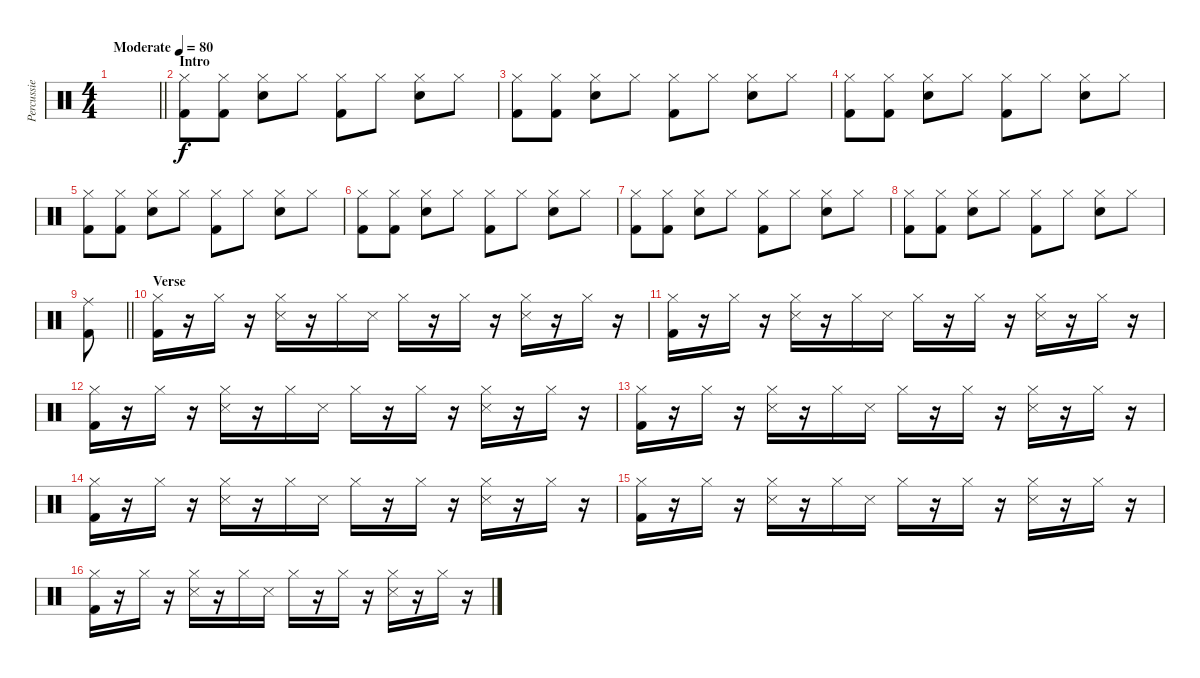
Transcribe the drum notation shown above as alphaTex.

\track ("Percussie" "Percussie") {instrument percussion}
\staff {score}
\articulation defaults
\ts (4 4)
\tempo (80 "Moderate")
\clef neutral
\barLineRight lightlight
\ks c
|
\section ("" "Intro")
("Kick (hit) 2" "Hi-Hat (closed)").8 ("Kick (hit) 2" "Hi-Hat (closed)").8 ("Hi-Hat (closed)" "Electric Snare (hit)").8 "Hi-Hat (closed)".8 ("Kick (hit) 2" "Hi-Hat (closed)").8 "Hi-Hat (closed)".8 ("Hi-Hat (closed)" "Electric Snare (hit)").8 "Hi-Hat (closed)".8 |
("Kick (hit) 2" "Hi-Hat (closed)").8 ("Kick (hit) 2" "Hi-Hat (closed)").8 ("Hi-Hat (closed)" "Electric Snare (hit)").8 "Hi-Hat (closed)".8 ("Kick (hit) 2" "Hi-Hat (closed)").8 "Hi-Hat (closed)".8 ("Hi-Hat (closed)" "Electric Snare (hit)").8 "Hi-Hat (closed)".8 |
("Kick (hit) 2" "Hi-Hat (closed)").8 ("Kick (hit) 2" "Hi-Hat (closed)").8 ("Hi-Hat (closed)" "Electric Snare (hit)").8 "Hi-Hat (closed)".8 ("Kick (hit) 2" "Hi-Hat (closed)").8 "Hi-Hat (closed)".8 ("Hi-Hat (closed)" "Electric Snare (hit)").8 "Hi-Hat (closed)".8 |
("Kick (hit) 2" "Hi-Hat (closed)").8 ("Kick (hit) 2" "Hi-Hat (closed)").8 ("Hi-Hat (closed)" "Electric Snare (hit)").8 "Hi-Hat (closed)".8 ("Kick (hit) 2" "Hi-Hat (closed)").8 "Hi-Hat (closed)".8 ("Hi-Hat (closed)" "Electric Snare (hit)").8 "Hi-Hat (closed)".8 |
("Kick (hit) 2" "Hi-Hat (closed)").8 ("Kick (hit) 2" "Hi-Hat (closed)").8 ("Hi-Hat (closed)" "Electric Snare (hit)").8 "Hi-Hat (closed)".8 ("Kick (hit) 2" "Hi-Hat (closed)").8 "Hi-Hat (closed)".8 ("Hi-Hat (closed)" "Electric Snare (hit)").8 "Hi-Hat (closed)".8 |
("Kick (hit) 2" "Hi-Hat (closed)").8 ("Kick (hit) 2" "Hi-Hat (closed)").8 ("Hi-Hat (closed)" "Electric Snare (hit)").8 "Hi-Hat (closed)".8 ("Kick (hit) 2" "Hi-Hat (closed)").8 "Hi-Hat (closed)".8 ("Hi-Hat (closed)" "Electric Snare (hit)").8 "Hi-Hat (closed)".8 |
("Kick (hit) 2" "Hi-Hat (closed)").8 ("Kick (hit) 2" "Hi-Hat (closed)").8 ("Hi-Hat (closed)" "Electric Snare (hit)").8 "Hi-Hat (closed)".8 ("Kick (hit) 2" "Hi-Hat (closed)").8 "Hi-Hat (closed)".8 ("Hi-Hat (closed)" "Electric Snare (hit)").8 "Hi-Hat (closed)".8 |
\barLineRight lightlight
("Ride (middle)" "Kick (hit) 2").8 |
\section ("" "Verse")
("Kick (hit) 2" "Hi-Hat (closed)").16 r.16 "Hi-Hat (closed)".16 r.16 ("Snare (side stick) 3" "Hi-Hat (closed)").16 r.16 "Hi-Hat (closed)".16 "Snare (side stick) 3".16 "Hi-Hat (closed)".16 r.16 "Hi-Hat (closed)".16 r.16 ("Snare (side stick) 3" "Hi-Hat (closed)").16 r.16 "Hi-Hat (closed)".16 r.16 |
("Kick (hit) 2" "Hi-Hat (closed)").16 r.16 "Hi-Hat (closed)".16 r.16 ("Snare (side stick) 3" "Hi-Hat (closed)").16 r.16 "Hi-Hat (closed)".16 "Snare (side stick) 3".16 "Hi-Hat (closed)".16 r.16 "Hi-Hat (closed)".16 r.16 ("Snare (side stick) 3" "Hi-Hat (closed)").16 r.16 "Hi-Hat (closed)".16 r.16 |
("Kick (hit) 2" "Hi-Hat (closed)").16 r.16 "Hi-Hat (closed)".16 r.16 ("Snare (side stick) 3" "Hi-Hat (closed)").16 r.16 "Hi-Hat (closed)".16 "Snare (side stick) 3".16 "Hi-Hat (closed)".16 r.16 "Hi-Hat (closed)".16 r.16 ("Snare (side stick) 3" "Hi-Hat (closed)").16 r.16 "Hi-Hat (closed)".16 r.16 |
("Kick (hit) 2" "Hi-Hat (closed)").16 r.16 "Hi-Hat (closed)".16 r.16 ("Snare (side stick) 3" "Hi-Hat (closed)").16 r.16 "Hi-Hat (closed)".16 "Snare (side stick) 3".16 "Hi-Hat (closed)".16 r.16 "Hi-Hat (closed)".16 r.16 ("Snare (side stick) 3" "Hi-Hat (closed)").16 r.16 "Hi-Hat (closed)".16 r.16 |
("Kick (hit) 2" "Hi-Hat (closed)").16 r.16 "Hi-Hat (closed)".16 r.16 ("Snare (side stick) 3" "Hi-Hat (closed)").16 r.16 "Hi-Hat (closed)".16 "Snare (side stick) 3".16 "Hi-Hat (closed)".16 r.16 "Hi-Hat (closed)".16 r.16 ("Snare (side stick) 3" "Hi-Hat (closed)").16 r.16 "Hi-Hat (closed)".16 r.16 |
("Kick (hit) 2" "Hi-Hat (closed)").16 r.16 "Hi-Hat (closed)".16 r.16 ("Snare (side stick) 3" "Hi-Hat (closed)").16 r.16 "Hi-Hat (closed)".16 "Snare (side stick) 3".16 "Hi-Hat (closed)".16 r.16 "Hi-Hat (closed)".16 r.16 ("Snare (side stick) 3" "Hi-Hat (closed)").16 r.16 "Hi-Hat (closed)".16 r.16 |
("Kick (hit) 2" "Hi-Hat (closed)").16 r.16 "Hi-Hat (closed)".16 r.16 ("Snare (side stick) 3" "Hi-Hat (closed)").16 r.16 "Hi-Hat (closed)".16 "Snare (side stick) 3".16 "Hi-Hat (closed)".16 r.16 "Hi-Hat (closed)".16 r.16 ("Snare (side stick) 3" "Hi-Hat (closed)").16 r.16 "Hi-Hat (closed)".16 r.16
